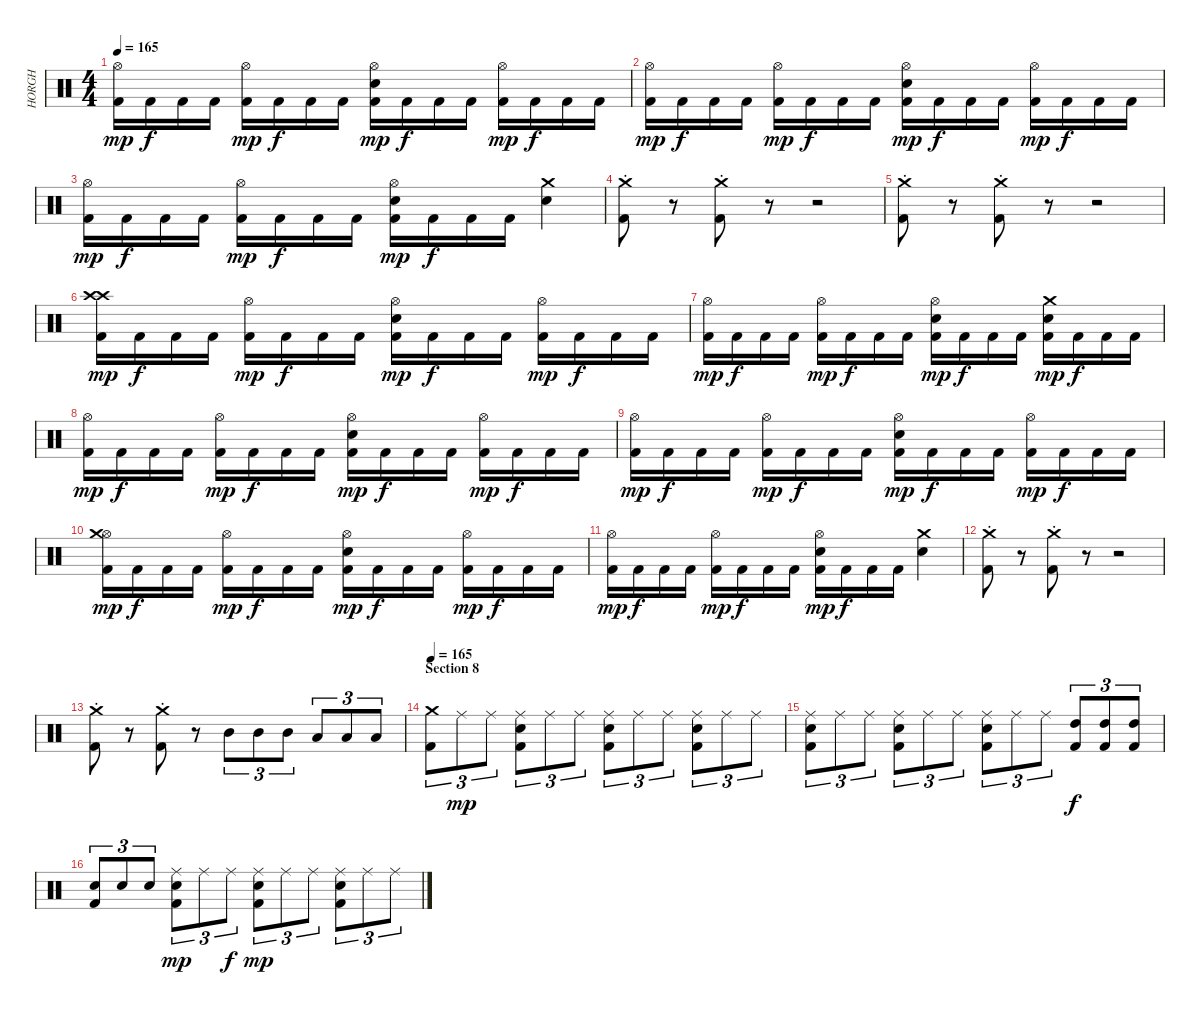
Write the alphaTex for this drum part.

\track ("HORGH" "HORGH") {instrument percussion}
\staff {score}
\articulation defaults
\ts (4 4)
\tempo 165
\clef neutral
\ks c
("Hi-Hat (open)" "Kick (hit) 2").16{dy mp} "Kick (hit) 2".16{dy f} "Kick (hit) 2".16 "Kick (hit) 2".16 ("Hi-Hat (open)" "Kick (hit) 2").16{dy mp} "Kick (hit) 2".16{dy f} "Kick (hit) 2".16 "Kick (hit) 2".16 ("Hi-Hat (open)" "Electric Snare (hit)" "Kick (hit) 2").16{dy mp} "Kick (hit) 2".16{dy f} "Kick (hit) 2".16 "Kick (hit) 2".16 ("Hi-Hat (open)" "Kick (hit) 2").16{dy mp} "Kick (hit) 2".16{dy f} "Kick (hit) 2".16 "Kick (hit) 2".16 |
("Hi-Hat (open)" "Kick (hit) 2").16{dy mp} "Kick (hit) 2".16{dy f} "Kick (hit) 2".16 "Kick (hit) 2".16 ("Hi-Hat (open)" "Kick (hit) 2").16{dy mp} "Kick (hit) 2".16{dy f} "Kick (hit) 2".16 "Kick (hit) 2".16 ("Hi-Hat (open)" "Electric Snare (hit)" "Kick (hit) 2").16{dy mp} "Kick (hit) 2".16{dy f} "Kick (hit) 2".16 "Kick (hit) 2".16 ("Hi-Hat (open)" "Kick (hit) 2").16{dy mp} "Kick (hit) 2".16{dy f} "Kick (hit) 2".16 "Kick (hit) 2".16 |
("Hi-Hat (open)" "Kick (hit) 2").16{dy mp} "Kick (hit) 2".16{dy f} "Kick (hit) 2".16 "Kick (hit) 2".16 ("Hi-Hat (open)" "Kick (hit) 2").16{dy mp} "Kick (hit) 2".16{dy f} "Kick (hit) 2".16 "Kick (hit) 2".16 ("Hi-Hat (open)" "Electric Snare (hit)" "Kick (hit) 2").16{dy mp} "Kick (hit) 2".16{dy f} "Kick (hit) 2".16 "Kick (hit) 2".16 ("Crash medium (hit)" "Electric Snare (hit)").4 |
("Crash medium (hit)"{st} "Kick (hit) 2").8 r.8 ("Crash medium (hit)"{st} "Kick (hit) 2").8 r.8 r.2 |
("Crash medium (hit)"{st} "Kick (hit) 2").8 r.8 ("Crash medium (hit)"{st} "Kick (hit) 2").8 r.8 r.2 |
("Crash high (hit)" "Crash high (hit)" "Kick (hit) 2").16{dy mp} "Kick (hit) 2".16{dy f} "Kick (hit) 2".16 "Kick (hit) 2".16 ("Hi-Hat (open)" "Kick (hit) 2").16{dy mp} "Kick (hit) 2".16{dy f} "Kick (hit) 2".16 "Kick (hit) 2".16 ("Hi-Hat (open)" "Electric Snare (hit)" "Kick (hit) 2").16{dy mp} "Kick (hit) 2".16{dy f} "Kick (hit) 2".16 "Kick (hit) 2".16 ("Hi-Hat (open)" "Kick (hit) 2").16{dy mp} "Kick (hit) 2".16{dy f} "Kick (hit) 2".16 "Kick (hit) 2".16 |
("Hi-Hat (open)" "Kick (hit) 2").16{dy mp} "Kick (hit) 2".16{dy f} "Kick (hit) 2".16 "Kick (hit) 2".16 ("Hi-Hat (open)" "Kick (hit) 2").16{dy mp} "Kick (hit) 2".16{dy f} "Kick (hit) 2".16 "Kick (hit) 2".16 ("Hi-Hat (open)" "Electric Snare (hit)" "Kick (hit) 2").16{dy mp} "Kick (hit) 2".16{dy f} "Kick (hit) 2".16 "Kick (hit) 2".16 ("Crash medium (hit)" "Electric Snare (hit)" "Kick (hit) 2").16{dy mp} "Kick (hit) 2".16{dy f} "Kick (hit) 2".16 "Kick (hit) 2".16 |
("Hi-Hat (open)" "Kick (hit) 2").16{dy mp} "Kick (hit) 2".16{dy f} "Kick (hit) 2".16 "Kick (hit) 2".16 ("Hi-Hat (open)" "Kick (hit) 2").16{dy mp} "Kick (hit) 2".16{dy f} "Kick (hit) 2".16 "Kick (hit) 2".16 ("Hi-Hat (open)" "Electric Snare (hit)" "Kick (hit) 2").16{dy mp} "Kick (hit) 2".16{dy f} "Kick (hit) 2".16 "Kick (hit) 2".16 ("Hi-Hat (open)" "Kick (hit) 2").16{dy mp} "Kick (hit) 2".16{dy f} "Kick (hit) 2".16 "Kick (hit) 2".16 |
("Hi-Hat (open)" "Kick (hit) 2").16{dy mp} "Kick (hit) 2".16{dy f} "Kick (hit) 2".16 "Kick (hit) 2".16 ("Hi-Hat (open)" "Kick (hit) 2").16{dy mp} "Kick (hit) 2".16{dy f} "Kick (hit) 2".16 "Kick (hit) 2".16 ("Hi-Hat (open)" "Electric Snare (hit)" "Kick (hit) 2").16{dy mp} "Kick (hit) 2".16{dy f} "Kick (hit) 2".16 "Kick (hit) 2".16 ("Hi-Hat (open)" "Kick (hit) 2").16{dy mp} "Kick (hit) 2".16{dy f} "Kick (hit) 2".16 "Kick (hit) 2".16 |
("Hi-Hat (open)" "Crash medium (hit)" "Kick (hit) 2").16{dy mp} "Kick (hit) 2".16{dy f} "Kick (hit) 2".16 "Kick (hit) 2".16 ("Hi-Hat (open)" "Kick (hit) 2").16{dy mp} "Kick (hit) 2".16{dy f} "Kick (hit) 2".16 "Kick (hit) 2".16 ("Hi-Hat (open)" "Electric Snare (hit)" "Kick (hit) 2").16{dy mp} "Kick (hit) 2".16{dy f} "Kick (hit) 2".16 "Kick (hit) 2".16 ("Hi-Hat (open)" "Kick (hit) 2").16{dy mp} "Kick (hit) 2".16{dy f} "Kick (hit) 2".16 "Kick (hit) 2".16 |
("Hi-Hat (open)" "Kick (hit) 2").16{dy mp} "Kick (hit) 2".16{dy f} "Kick (hit) 2".16 "Kick (hit) 2".16 ("Hi-Hat (open)" "Kick (hit) 2").16{dy mp} "Kick (hit) 2".16{dy f} "Kick (hit) 2".16 "Kick (hit) 2".16 ("Hi-Hat (open)" "Electric Snare (hit)" "Kick (hit) 2").16{dy mp} "Kick (hit) 2".16{dy f} "Kick (hit) 2".16 "Kick (hit) 2".16 ("Crash medium (hit)" "Electric Snare (hit)").4 |
("Crash medium (hit)"{st} "Kick (hit) 2").8 r.8 ("Crash medium (hit)"{st} "Kick (hit) 2").8 r.8 r.2 |
("Crash medium (hit)"{st} "Kick (hit) 2").8 r.8 ("Crash medium (hit)"{st} "Kick (hit) 2").8 r.8 "Mid Tom (hit)".8{tu (3 2)} "Mid Tom (hit)".8{tu (3 2)} "Mid Tom (hit)".8{tu (3 2)} "Low Tom (hit)".8{tu (3 2)} "Low Tom (hit)".8{tu (3 2)} "Low Tom (hit)".8{tu (3 2)} |
\section ("" "Section 8")
\tempo 165
("Crash medium (hit)" "Kick (hit) 2").8{tu (3 2)} "Ride (middle)".8{tu (3 2) dy mp} "Ride (middle)".8{tu (3 2)} ("Ride (middle)" "Electric Snare (hit)" "Kick (hit) 2").8{tu (3 2)} "Ride (middle)".8{tu (3 2)} "Ride (middle)".8{tu (3 2)} ("Ride (middle)" "Electric Snare (hit)" "Kick (hit) 2").8{tu (3 2)} "Ride (middle)".8{tu (3 2)} "Ride (middle)".8{tu (3 2)} ("Ride (middle)" "Electric Snare (hit)" "Kick (hit) 2").8{tu (3 2)} "Ride (middle)".8{tu (3 2)} "Ride (middle)".8{tu (3 2)} |
("Ride (middle)" "Kick (hit) 2" "Electric Snare (hit)").8{tu (3 2)} "Ride (middle)".8{tu (3 2)} "Ride (middle)".8{tu (3 2)} ("Ride (middle)" "Electric Snare (hit)" "Kick (hit) 2").8{tu (3 2)} "Ride (middle)".8{tu (3 2)} "Ride (middle)".8{tu (3 2)} ("Ride (middle)" "Electric Snare (hit)" "Kick (hit) 2").8{tu (3 2)} "Ride (middle)".8{tu (3 2)} "Ride (middle)".8{tu (3 2)} ("High Tom (hit)" "Kick (hit) 2").8{tu (3 2) dy f} ("High Tom (hit)" "Kick (hit) 2").8{tu (3 2)} ("High Tom (hit)" "Kick (hit) 2").8{tu (3 2)} |
("Electric Snare (hit)" "Kick (hit) 2").8{tu (3 2)} "Electric Snare (hit)".8{tu (3 2)} "Electric Snare (hit)".8{tu (3 2)} ("Ride (middle)" "Electric Snare (hit)" "Kick (hit) 2").8{tu (3 2) dy mp} "Ride (middle)".8{tu (3 2)} "Ride (middle)".8{tu (3 2) dy f} ("Ride (middle)" "Electric Snare (hit)" "Kick (hit) 2").8{tu (3 2) dy mp} "Ride (middle)".8{tu (3 2)} "Ride (middle)".8{tu (3 2)} ("Ride (middle)" "Electric Snare (hit)" "Kick (hit) 2").8{tu (3 2)} "Ride (middle)".8{tu (3 2)} "Ride (middle)".8{tu (3 2)}
